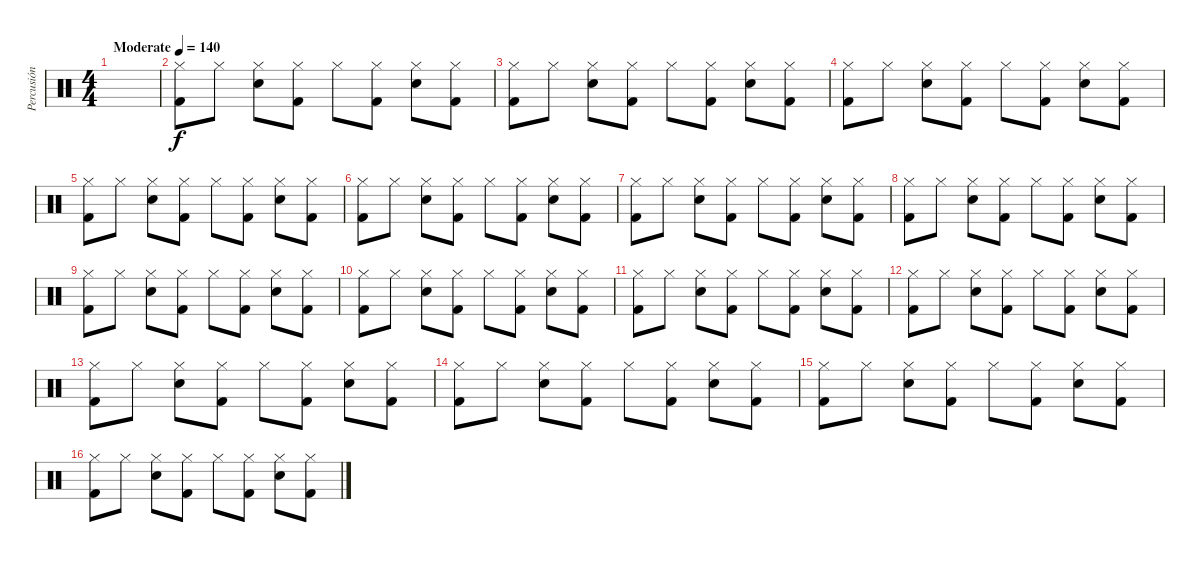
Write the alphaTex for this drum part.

\track ("Percusión" "Percusión") {instrument percussion}
\staff {score}
\articulation defaults
\ts (4 4)
\tempo (140 "Moderate")
\clef neutral
\ks c
|
("Hi-Hat (closed)" "Kick (hit) 2").8 "Hi-Hat (closed)".8 ("Hi-Hat (closed)" "Snare (hit) 2").8 ("Hi-Hat (closed)" "Kick (hit) 2").8 "Hi-Hat (closed)".8 ("Hi-Hat (closed)" "Kick (hit) 2").8 ("Hi-Hat (closed)" "Snare (hit) 2").8 ("Hi-Hat (closed)" "Kick (hit) 2").8 |
("Hi-Hat (closed)" "Kick (hit) 2").8 "Hi-Hat (closed)".8 ("Hi-Hat (closed)" "Snare (hit) 2").8 ("Hi-Hat (closed)" "Kick (hit) 2").8 "Hi-Hat (closed)".8 ("Hi-Hat (closed)" "Kick (hit) 2").8 ("Hi-Hat (closed)" "Snare (hit) 2").8 ("Hi-Hat (closed)" "Kick (hit) 2").8 |
("Hi-Hat (closed)" "Kick (hit) 2").8 "Hi-Hat (closed)".8 ("Hi-Hat (closed)" "Snare (hit) 2").8 ("Hi-Hat (closed)" "Kick (hit) 2").8 "Hi-Hat (closed)".8 ("Hi-Hat (closed)" "Kick (hit) 2").8 ("Hi-Hat (closed)" "Snare (hit) 2").8 ("Hi-Hat (closed)" "Kick (hit) 2").8 |
("Hi-Hat (closed)" "Kick (hit) 2").8 "Hi-Hat (closed)".8 ("Hi-Hat (closed)" "Snare (hit) 2").8 ("Hi-Hat (closed)" "Kick (hit) 2").8 "Hi-Hat (closed)".8 ("Hi-Hat (closed)" "Kick (hit) 2").8 ("Hi-Hat (closed)" "Snare (hit) 2").8 ("Hi-Hat (closed)" "Kick (hit) 2").8 |
("Hi-Hat (closed)" "Kick (hit) 2").8 "Hi-Hat (closed)".8 ("Hi-Hat (closed)" "Snare (hit) 2").8 ("Hi-Hat (closed)" "Kick (hit) 2").8 "Hi-Hat (closed)".8 ("Hi-Hat (closed)" "Kick (hit) 2").8 ("Hi-Hat (closed)" "Snare (hit) 2").8 ("Hi-Hat (closed)" "Kick (hit) 2").8 |
("Hi-Hat (closed)" "Kick (hit) 2").8 "Hi-Hat (closed)".8 ("Hi-Hat (closed)" "Snare (hit) 2").8 ("Hi-Hat (closed)" "Kick (hit) 2").8 "Hi-Hat (closed)".8 ("Hi-Hat (closed)" "Kick (hit) 2").8 ("Hi-Hat (closed)" "Snare (hit) 2").8 ("Hi-Hat (closed)" "Kick (hit) 2").8 |
("Hi-Hat (closed)" "Kick (hit) 2").8 "Hi-Hat (closed)".8 ("Hi-Hat (closed)" "Snare (hit) 2").8 ("Hi-Hat (closed)" "Kick (hit) 2").8 "Hi-Hat (closed)".8 ("Hi-Hat (closed)" "Kick (hit) 2").8 ("Hi-Hat (closed)" "Snare (hit) 2").8 ("Hi-Hat (closed)" "Kick (hit) 2").8 |
("Hi-Hat (closed)" "Kick (hit) 2").8 "Hi-Hat (closed)".8 ("Hi-Hat (closed)" "Snare (hit) 2").8 ("Hi-Hat (closed)" "Kick (hit) 2").8 "Hi-Hat (closed)".8 ("Hi-Hat (closed)" "Kick (hit) 2").8 ("Hi-Hat (closed)" "Snare (hit) 2").8 ("Hi-Hat (closed)" "Kick (hit) 2").8 |
("Hi-Hat (closed)" "Kick (hit) 2").8 "Hi-Hat (closed)".8 ("Hi-Hat (closed)" "Snare (hit) 2").8 ("Hi-Hat (closed)" "Kick (hit) 2").8 "Hi-Hat (closed)".8 ("Hi-Hat (closed)" "Kick (hit) 2").8 ("Hi-Hat (closed)" "Snare (hit) 2").8 ("Hi-Hat (closed)" "Kick (hit) 2").8 |
("Hi-Hat (closed)" "Kick (hit) 2").8 "Hi-Hat (closed)".8 ("Hi-Hat (closed)" "Snare (hit) 2").8 ("Hi-Hat (closed)" "Kick (hit) 2").8 "Hi-Hat (closed)".8 ("Hi-Hat (closed)" "Kick (hit) 2").8 ("Hi-Hat (closed)" "Snare (hit) 2").8 ("Hi-Hat (closed)" "Kick (hit) 2").8 |
("Hi-Hat (closed)" "Kick (hit) 2").8 "Hi-Hat (closed)".8 ("Hi-Hat (closed)" "Snare (hit) 2").8 ("Hi-Hat (closed)" "Kick (hit) 2").8 "Hi-Hat (closed)".8 ("Hi-Hat (closed)" "Kick (hit) 2").8 ("Hi-Hat (closed)" "Snare (hit) 2").8 ("Hi-Hat (closed)" "Kick (hit) 2").8 |
("Hi-Hat (closed)" "Kick (hit) 2").8 "Hi-Hat (closed)".8 ("Hi-Hat (closed)" "Snare (hit) 2").8 ("Hi-Hat (closed)" "Kick (hit) 2").8 "Hi-Hat (closed)".8 ("Hi-Hat (closed)" "Kick (hit) 2").8 ("Hi-Hat (closed)" "Snare (hit) 2").8 ("Hi-Hat (closed)" "Kick (hit) 2").8 |
("Hi-Hat (closed)" "Kick (hit) 2").8 "Hi-Hat (closed)".8 ("Hi-Hat (closed)" "Snare (hit) 2").8 ("Hi-Hat (closed)" "Kick (hit) 2").8 "Hi-Hat (closed)".8 ("Hi-Hat (closed)" "Kick (hit) 2").8 ("Hi-Hat (closed)" "Snare (hit) 2").8 ("Hi-Hat (closed)" "Kick (hit) 2").8 |
("Hi-Hat (closed)" "Kick (hit) 2").8 "Hi-Hat (closed)".8 ("Hi-Hat (closed)" "Snare (hit) 2").8 ("Hi-Hat (closed)" "Kick (hit) 2").8 "Hi-Hat (closed)".8 ("Hi-Hat (closed)" "Kick (hit) 2").8 ("Hi-Hat (closed)" "Snare (hit) 2").8 ("Hi-Hat (closed)" "Kick (hit) 2").8 |
("Hi-Hat (closed)" "Kick (hit) 2").8 "Hi-Hat (closed)".8 ("Hi-Hat (closed)" "Snare (hit) 2").8 ("Hi-Hat (closed)" "Kick (hit) 2").8 "Hi-Hat (closed)".8 ("Hi-Hat (closed)" "Kick (hit) 2").8 ("Hi-Hat (closed)" "Snare (hit) 2").8 ("Hi-Hat (closed)" "Kick (hit) 2").8
